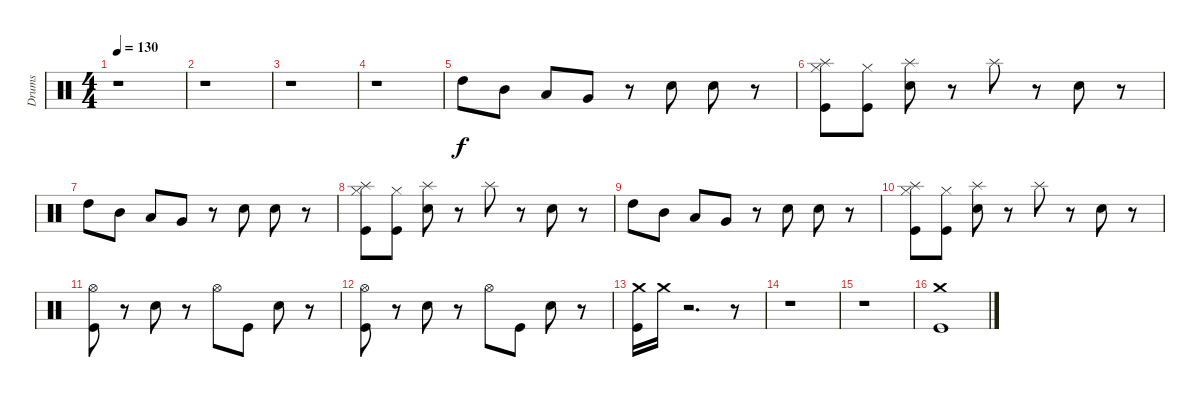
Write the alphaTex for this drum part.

\track ("Drums" "Drums") {instrument percussion}
\staff {score}
\articulation defaults
\ts (4 4)
\tempo 130
\clef neutral
\ks c
r.1{dy f} |
r.1 |
r.1 |
r.1 |
"High Tom (hit)".8 "Mid Tom (hit)".8 "Low Tom (hit)".8 "Very Low Tom (hit)".8 r.8 "Snare (hit) 2".8 "Snare (hit) 2".8 r.8 |
("Splash (hit)" "Hi-Hat (closed)" "Kick (hit)").8 ("Hi-Hat (closed)" "Kick (hit)").8 ("Splash (hit)" "Snare (hit) 2").8 r.8 "Splash (hit)".8 r.8 "Snare (hit) 2".8 r.8 |
"High Tom (hit)".8 "Mid Tom (hit)".8 "Low Tom (hit)".8 "Very Low Tom (hit)".8 r.8 "Snare (hit) 2".8 "Snare (hit) 2".8 r.8 |
("Splash (hit)" "Hi-Hat (closed)" "Kick (hit)").8 ("Hi-Hat (closed)" "Kick (hit)").8 ("Splash (hit)" "Snare (hit) 2").8 r.8 "Splash (hit)".8 r.8 "Snare (hit) 2".8 r.8 |
"High Tom (hit)".8 "Mid Tom (hit)".8 "Low Tom (hit)".8 "Very Low Tom (hit)".8 r.8 "Snare (hit) 2".8 "Snare (hit) 2".8 r.8 |
("Splash (hit)" "Hi-Hat (closed)" "Kick (hit)").8 ("Hi-Hat (closed)" "Kick (hit)").8 ("Splash (hit)" "Snare (hit) 2").8 r.8 "Splash (hit)".8 r.8 "Snare (hit) 2".8 r.8 |
("Hi-Hat (open)" "Kick (hit)").8 r.8 "Snare (hit) 2".8 r.8 "Hi-Hat (open)".8 "Kick (hit)".8 "Snare (hit) 2".8 r.8 |
("Hi-Hat (open)" "Kick (hit)").8 r.8 "Snare (hit) 2".8 r.8 "Hi-Hat (open)".8 "Kick (hit)".8 "Snare (hit) 2".8 r.8 |
("Crash medium (hit)" "Kick (hit)").16 "Crash medium (hit)".16 r.2{d} r.8 |
r.1 |
r.1 |
("Crash medium (hit)" "Kick (hit)").1
